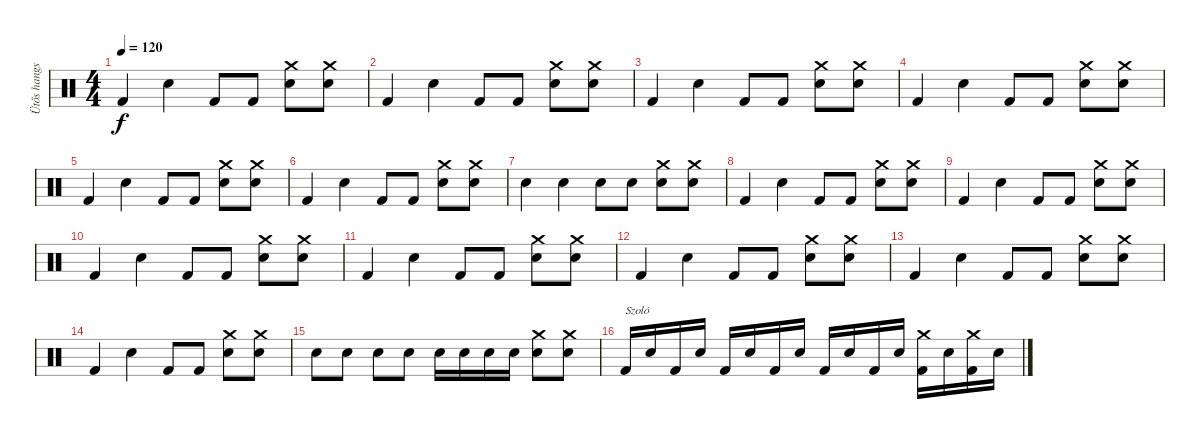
\track ("Ütős hangszer" "Ütős hangs") {instrument percussion}
\staff {score}
\articulation defaults
\ts (4 4)
\tempo 120
\clef neutral
\ks c "Kick (hit) 2".4{dy f} "Snare (hit) 2".4 "Kick (hit) 2".8 "Kick (hit) 2".8
("Crash medium (hit)" "Snare (hit) 2").8 ("Crash medium (hit)" "Snare (hit) 2").8 |
"Kick (hit) 2".4 "Snare (hit) 2".4 "Kick (hit) 2".8 "Kick (hit) 2".8 ("Crash medium (hit)" "Snare (hit) 2").8 ("Crash medium (hit)" "Snare (hit) 2").8 |
"Kick (hit) 2".4 "Snare (hit) 2".4 "Kick (hit) 2".8 "Kick (hit) 2".8 ("Crash medium (hit)" "Snare (hit) 2").8 ("Crash medium (hit)" "Snare (hit) 2").8 |
"Kick (hit) 2".4 "Snare (hit) 2".4 "Kick (hit) 2".8 "Kick (hit) 2".8 ("Crash medium (hit)" "Snare (hit) 2").8 ("Crash medium (hit)" "Snare (hit) 2").8 |
"Kick (hit) 2".4 "Snare (hit) 2".4 "Kick (hit) 2".8 "Kick (hit) 2".8 ("Crash medium (hit)" "Snare (hit) 2").8 ("Crash medium (hit)" "Snare (hit) 2").8 |
"Kick (hit) 2".4 "Snare (hit) 2".4 "Kick (hit) 2".8 "Kick (hit) 2".8 ("Crash medium (hit)" "Snare (hit) 2").8 ("Crash medium (hit)" "Snare (hit) 2").8 |
"Snare (hit) 2".4 "Snare (hit) 2".4 "Snare (hit) 2".8 "Snare (hit) 2".8 ("Crash medium (hit)" "Snare (hit) 2").8 ("Crash medium (hit)" "Snare (hit) 2").8 |
"Kick (hit) 2".4 "Snare (hit) 2".4 "Kick (hit) 2".8 "Kick (hit) 2".8 ("Crash medium (hit)" "Snare (hit) 2").8 ("Crash medium (hit)" "Snare (hit) 2").8 |
"Kick (hit) 2".4 "Snare (hit) 2".4 "Kick (hit) 2".8 "Kick (hit) 2".8 ("Crash medium (hit)" "Snare (hit) 2").8 ("Crash medium (hit)" "Snare (hit) 2").8 |
"Kick (hit) 2".4 "Snare (hit) 2".4 "Kick (hit) 2".8 "Kick (hit) 2".8 ("Crash medium (hit)" "Snare (hit) 2").8 ("Crash medium (hit)" "Snare (hit) 2").8 |
"Kick (hit) 2".4 "Snare (hit) 2".4 "Kick (hit) 2".8 "Kick (hit) 2".8 ("Crash medium (hit)" "Snare (hit) 2").8 ("Crash medium (hit)" "Snare (hit) 2").8 |
"Kick (hit) 2".4 "Snare (hit) 2".4 "Kick (hit) 2".8 "Kick (hit) 2".8 ("Crash medium (hit)" "Snare (hit) 2").8 ("Crash medium (hit)" "Snare (hit) 2").8 |
"Kick (hit) 2".4 "Snare (hit) 2".4 "Kick (hit) 2".8 "Kick (hit) 2".8 ("Crash medium (hit)" "Snare (hit) 2").8 ("Crash medium (hit)" "Snare (hit) 2").8 |
"Kick (hit) 2".4 "Snare (hit) 2".4 "Kick (hit) 2".8 "Kick (hit) 2".8 ("Crash medium (hit)" "Snare (hit) 2").8 ("Crash medium (hit)" "Snare (hit) 2").8 |
"Snare (hit) 2".8 "Snare (hit) 2".8 "Snare (hit) 2".8 "Snare (hit) 2".8 "Snare (hit) 2".16 "Snare (hit) 2".16 "Snare (hit) 2".16 "Snare (hit) 2".16 ("Crash medium (hit)" "Snare (hit) 2").8 ("Crash medium (hit)" "Snare (hit) 2").8 |
"Kick (hit) 2".16{txt "Szoló"} "Snare (hit) 2".16 "Kick (hit) 2".16 "Snare (hit) 2".16 "Kick (hit) 2".16 "Snare (hit) 2".16 "Kick (hit) 2".16 "Snare (hit) 2".16 "Kick (hit) 2".16 "Snare (hit) 2".16 "Kick (hit) 2".16 "Snare (hit) 2".16 ("Crash medium (hit)" "Kick (hit) 2").16 "Snare (hit) 2".16 ("Crash medium (hit)" "Kick (hit) 2").16 "Snare (hit) 2".16
